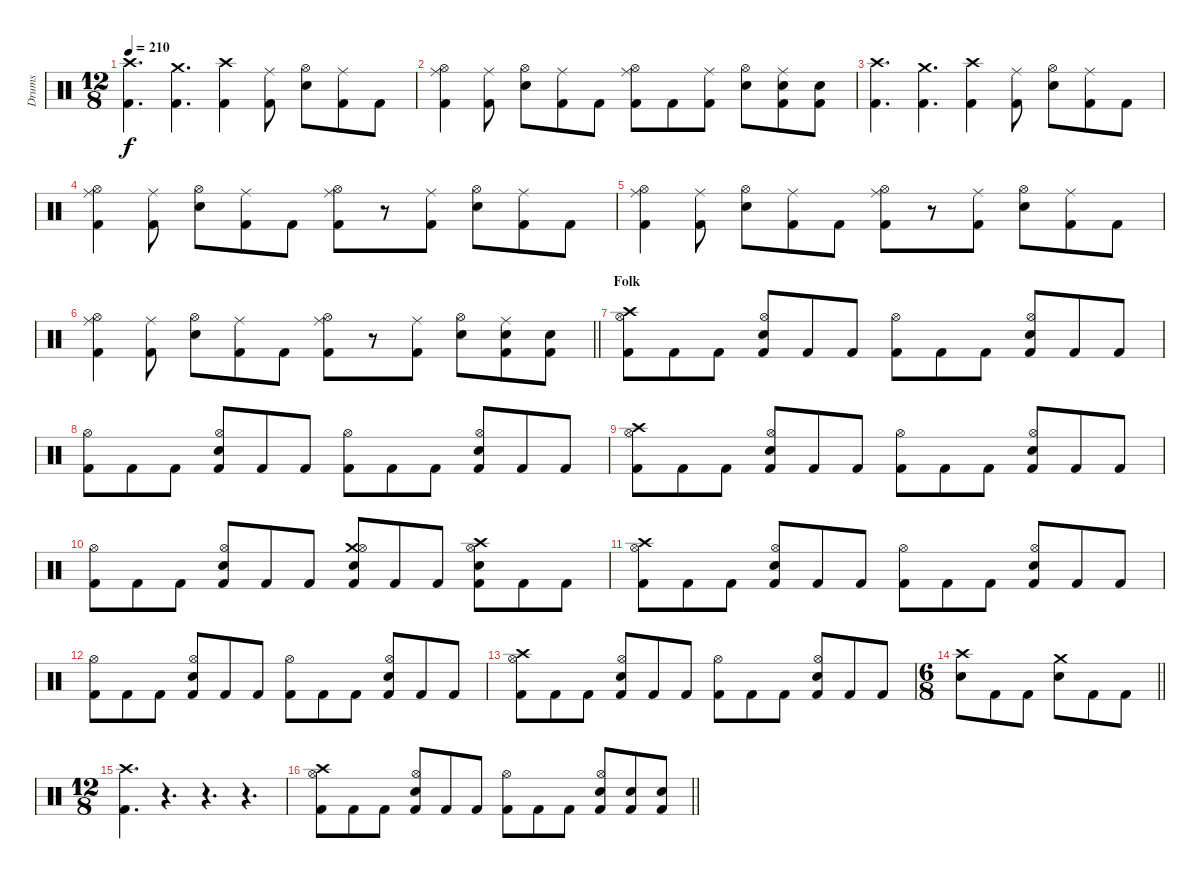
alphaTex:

\track ("Drums" "Drums") {instrument percussion}
\staff {score}
\articulation defaults
\ts (12 8)
\tempo 210
\clef neutral
\ks c
("Crash high (hit)" "Kick (hit) 2").4{d dy f} ("Crash medium (hit)" "Kick (hit) 2").4{d} ("Crash high (hit)" "Kick (hit) 2").4 ("Ride (middle)" "Kick (hit) 2").8 ("Hi-Hat (open)" "Snare (hit) 2").8 ("Ride (middle)" "Kick (hit) 2").8 "Kick (hit) 2".8 |
("Ride (middle)" "Hi-Hat (open)" "Kick (hit) 2").4 ("Ride (middle)" "Kick (hit) 2").8 ("Hi-Hat (open)" "Snare (hit) 2").8 ("Ride (middle)" "Kick (hit) 2").8 "Kick (hit) 2".8 ("Ride (middle)" "Hi-Hat (open)" "Kick (hit) 2").8 "Kick (hit) 2".8 ("Ride (middle)" "Kick (hit) 2").8 ("Hi-Hat (open)" "Snare (hit) 2").8 ("Ride (middle)" "Snare (hit) 2" "Kick (hit) 2").8 ("Snare (hit) 2" "Kick (hit) 2").8 |
("Crash high (hit)" "Kick (hit) 2").4{d} ("Crash medium (hit)" "Kick (hit) 2").4{d} ("Crash high (hit)" "Kick (hit) 2").4 ("Ride (middle)" "Kick (hit) 2").8 ("Hi-Hat (open)" "Snare (hit) 2").8 ("Ride (middle)" "Kick (hit) 2").8 "Kick (hit) 2".8 |
("Ride (middle)" "Hi-Hat (open)" "Kick (hit) 2").4 ("Ride (middle)" "Kick (hit) 2").8 ("Hi-Hat (open)" "Snare (hit) 2").8 ("Ride (middle)" "Kick (hit) 2").8 "Kick (hit) 2".8 ("Ride (middle)" "Hi-Hat (open)" "Kick (hit) 2").8 r.8 ("Ride (middle)" "Kick (hit) 2").8 ("Hi-Hat (open)" "Snare (hit) 2").8 ("Ride (middle)" "Kick (hit) 2").8 "Kick (hit) 2".8 |
("Ride (middle)" "Hi-Hat (open)" "Kick (hit) 2").4 ("Ride (middle)" "Kick (hit) 2").8 ("Hi-Hat (open)" "Snare (hit) 2").8 ("Ride (middle)" "Kick (hit) 2").8 "Kick (hit) 2".8 ("Ride (middle)" "Hi-Hat (open)" "Kick (hit) 2").8 r.8 ("Ride (middle)" "Kick (hit) 2").8 ("Hi-Hat (open)" "Snare (hit) 2").8 ("Ride (middle)" "Kick (hit) 2").8 "Kick (hit) 2".8 |
\barLineRight lightlight
("Ride (middle)" "Hi-Hat (open)" "Kick (hit) 2").4 ("Ride (middle)" "Kick (hit) 2").8 ("Hi-Hat (open)" "Snare (hit) 2").8 ("Ride (middle)" "Kick (hit) 2").8 "Kick (hit) 2".8 ("Ride (middle)" "Hi-Hat (open)" "Kick (hit) 2").8 r.8 ("Ride (middle)" "Kick (hit) 2").8 ("Hi-Hat (open)" "Snare (hit) 2").8 ("Ride (middle)" "Snare (hit) 2" "Kick (hit) 2").8 ("Snare (hit) 2" "Kick (hit) 2").8 |
\section ("" "Folk")
("Crash high (hit)" "Hi-Hat (open)" "Kick (hit) 2").8 "Kick (hit) 2".8 "Kick (hit) 2".8 ("Hi-Hat (open)" "Snare (hit) 2" "Kick (hit) 2").8 "Kick (hit) 2".8 "Kick (hit) 2".8 ("Hi-Hat (open)" "Kick (hit) 2").8 "Kick (hit) 2".8 "Kick (hit) 2".8 ("Hi-Hat (open)" "Snare (hit) 2" "Kick (hit) 2").8 "Kick (hit) 2".8 "Kick (hit) 2".8 |
("Hi-Hat (open)" "Kick (hit) 2").8 "Kick (hit) 2".8 "Kick (hit) 2".8 ("Hi-Hat (open)" "Snare (hit) 2" "Kick (hit) 2").8 "Kick (hit) 2".8 "Kick (hit) 2".8 ("Hi-Hat (open)" "Kick (hit) 2").8 "Kick (hit) 2".8 "Kick (hit) 2".8 ("Hi-Hat (open)" "Snare (hit) 2" "Kick (hit) 2").8 "Kick (hit) 2".8 "Kick (hit) 2".8 |
("Crash high (hit)" "Hi-Hat (open)" "Kick (hit) 2").8 "Kick (hit) 2".8 "Kick (hit) 2".8 ("Hi-Hat (open)" "Snare (hit) 2" "Kick (hit) 2").8 "Kick (hit) 2".8 "Kick (hit) 2".8 ("Hi-Hat (open)" "Kick (hit) 2").8 "Kick (hit) 2".8 "Kick (hit) 2".8 ("Hi-Hat (open)" "Snare (hit) 2" "Kick (hit) 2").8 "Kick (hit) 2".8 "Kick (hit) 2".8 |
("Hi-Hat (open)" "Kick (hit) 2").8 "Kick (hit) 2".8 "Kick (hit) 2".8 ("Hi-Hat (open)" "Snare (hit) 2" "Kick (hit) 2").8 "Kick (hit) 2".8 "Kick (hit) 2".8 ("Crash medium (hit)" "Hi-Hat (open)" "Snare (hit) 2" "Kick (hit) 2").8 "Kick (hit) 2".8 "Kick (hit) 2".8 ("Crash high (hit)" "Hi-Hat (open)" "Snare (hit) 2" "Kick (hit) 2").8 "Kick (hit) 2".8 "Kick (hit) 2".8 |
("Crash high (hit)" "Hi-Hat (open)" "Kick (hit) 2").8 "Kick (hit) 2".8 "Kick (hit) 2".8 ("Hi-Hat (open)" "Snare (hit) 2" "Kick (hit) 2").8 "Kick (hit) 2".8 "Kick (hit) 2".8 ("Hi-Hat (open)" "Kick (hit) 2").8 "Kick (hit) 2".8 "Kick (hit) 2".8 ("Hi-Hat (open)" "Snare (hit) 2" "Kick (hit) 2").8 "Kick (hit) 2".8 "Kick (hit) 2".8 |
("Hi-Hat (open)" "Kick (hit) 2").8 "Kick (hit) 2".8 "Kick (hit) 2".8 ("Hi-Hat (open)" "Snare (hit) 2" "Kick (hit) 2").8 "Kick (hit) 2".8 "Kick (hit) 2".8 ("Hi-Hat (open)" "Kick (hit) 2").8 "Kick (hit) 2".8 "Kick (hit) 2".8 ("Hi-Hat (open)" "Snare (hit) 2" "Kick (hit) 2").8 "Kick (hit) 2".8 "Kick (hit) 2".8 |
("Crash high (hit)" "Hi-Hat (open)" "Kick (hit) 2").8 "Kick (hit) 2".8 "Kick (hit) 2".8 ("Hi-Hat (open)" "Snare (hit) 2" "Kick (hit) 2").8 "Kick (hit) 2".8 "Kick (hit) 2".8 ("Hi-Hat (open)" "Kick (hit) 2").8 "Kick (hit) 2".8 "Kick (hit) 2".8 ("Hi-Hat (open)" "Snare (hit) 2" "Kick (hit) 2").8 "Kick (hit) 2".8 "Kick (hit) 2".8 |
\ts (6 8)
\barLineRight lightlight
("Crash high (hit)" "Snare (hit) 2").8 "Kick (hit) 2".8 "Kick (hit) 2".8 ("Crash medium (hit)" "Snare (hit) 2").8 "Kick (hit) 2".8 "Kick (hit) 2".8 |
\ts (12 8)
("Crash high (hit)" "Kick (hit) 2").4{d} r.4{d} r.4{d} r.4{d} |
\barLineRight lightlight
("Crash high (hit)" "Hi-Hat (open)" "Kick (hit) 2").8 "Kick (hit) 2".8 "Kick (hit) 2".8 ("Hi-Hat (open)" "Snare (hit) 2" "Kick (hit) 2").8 "Kick (hit) 2".8 "Kick (hit) 2".8 ("Hi-Hat (open)" "Kick (hit) 2").8 "Kick (hit) 2".8 "Kick (hit) 2".8 ("Hi-Hat (open)" "Snare (hit) 2" "Kick (hit) 2").8 ("Snare (hit) 2" "Kick (hit) 2").8 ("Snare (hit) 2" "Kick (hit) 2").8
